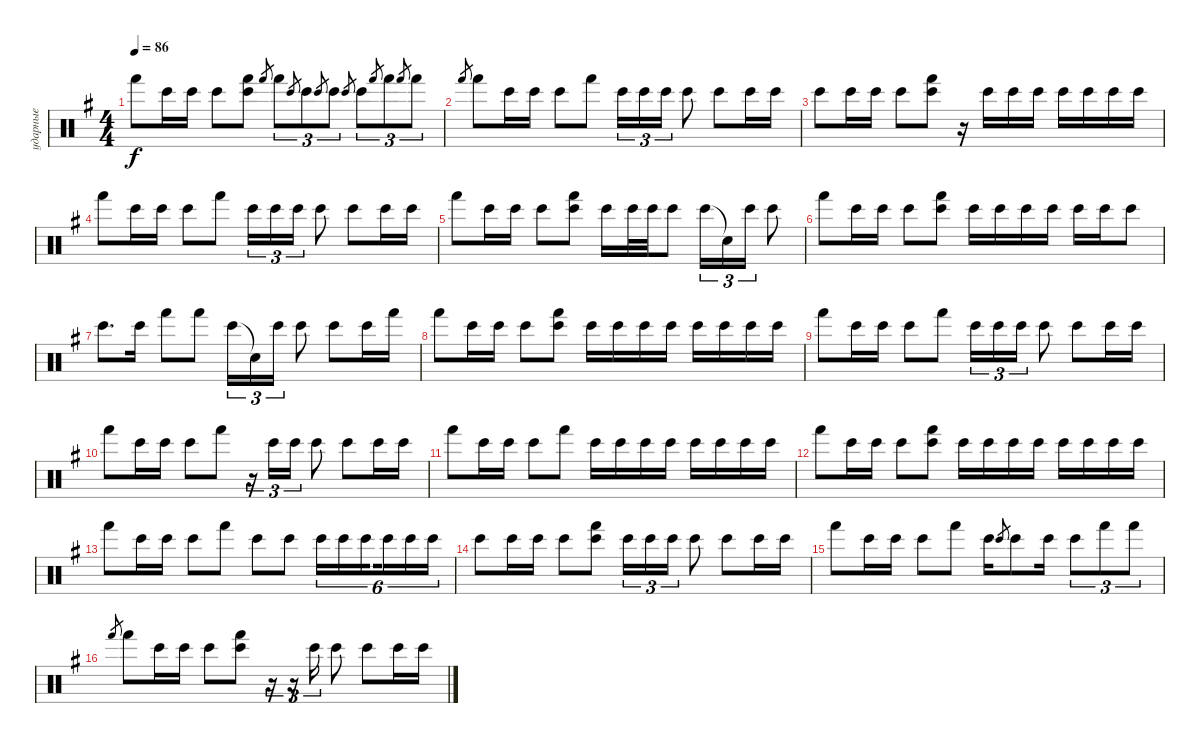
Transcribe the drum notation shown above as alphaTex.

\track ("ударные" "ударные") {instrument percussion}
\staff {score}
\articulation defaults
\ts (4 4)
\tempo 86
\clef neutral
\ks eminor "Hand (hit)".8{dy f} "Bongo High (hit)".16 "Bongo High (hit)".16 "Bongo High (hit)".8
("Bongo High (hit)" "Hand (hit)").8 "Hand (hit)".8{gr} "Hand (hit)".8{tu (3 2)} "Bongo High (hit)".8{gr} "Bongo High (hit)".8{tu (3 2)} "Bongo High (hit)".8{gr} "Bongo High (hit)".8{tu (3 2)} "Bongo High (hit)".8{gr} "Bongo High (hit)".8{tu (3 2)} "Hand (hit)".8{gr} "Hand (hit)".8{tu (3 2)} "Hand (hit)".8{gr} "Hand (hit)".8{tu (3 2)} |
"Hand (hit)".8{gr} "Hand (hit)".8 "Bongo High (hit)".16 "Bongo High (hit)".16 "Bongo High (hit)".8 "Hand (hit)".8 "Bongo High (hit)".16{tu (3 2)} "Bongo High (hit)".16{tu (3 2)} "Bongo High (hit)".16{tu (3 2)} "Bongo High (hit)".8 "Bongo High (hit)".8 "Bongo High (hit)".16 "Bongo High (hit)".16 |
"Bongo High (hit)".8 "Bongo High (hit)".16 "Bongo High (hit)".16 "Bongo High (hit)".8 ("Bongo High (hit)" "Hand (hit)").8 r.16 "Bongo High (hit)".16 "Bongo High (hit)".16 "Bongo High (hit)".16 "Bongo High (hit)".16 "Bongo High (hit)".16 "Bongo High (hit)".16 "Bongo High (hit)".16 |
"Hand (hit)".8 "Bongo High (hit)".16 "Bongo High (hit)".16 "Bongo High (hit)".8 "Hand (hit)".8 "Bongo High (hit)".16{tu (3 2)} "Bongo High (hit)".16{tu (3 2)} "Bongo High (hit)".16{tu (3 2)} "Bongo High (hit)".8 "Bongo High (hit)".8 "Bongo High (hit)".16 "Bongo High (hit)".16 |
"Hand (hit)".8 "Bongo High (hit)".16 "Bongo High (hit)".16 "Bongo High (hit)".8 ("Bongo High (hit)" "Hand (hit)").8 "Bongo High (hit)".16 "Bongo High (hit)".32 "Bongo High (hit)".32 "Bongo High (hit)".8 "Bongo High (hit)".16{tu (3 2)} "Snare (hit)"{t}.16{tu (3 2)} "Bongo High (hit)".16{tu (3 2)} "Bongo High (hit)".8 |
"Hand (hit)".8 "Bongo High (hit)".16 "Bongo High (hit)".16 "Bongo High (hit)".8 ("Bongo High (hit)" "Hand (hit)").8 "Bongo High (hit)".16 "Bongo High (hit)".16 "Bongo High (hit)".16 "Bongo High (hit)".16 "Bongo High (hit)".16 "Bongo High (hit)".16 "Bongo High (hit)".8 |
"Bongo High (hit)".8{d} "Bongo High (hit)".16 "Hand (hit)".8 "Hand (hit)".8 "Bongo High (hit)".16{tu (3 2)} "Snare (hit)"{t}.16{tu (3 2)} "Bongo High (hit)".16{tu (3 2)} "Bongo High (hit)".8 "Bongo High (hit)".8 "Bongo High (hit)".16 "Hand (hit)".16 |
"Hand (hit)".8 "Bongo High (hit)".16 "Bongo High (hit)".16 "Bongo High (hit)".8 ("Bongo High (hit)" "Hand (hit)").8 "Bongo High (hit)".16 "Bongo High (hit)".16 "Bongo High (hit)".16 "Bongo High (hit)".16 "Bongo High (hit)".16 "Bongo High (hit)".16 "Bongo High (hit)".16 "Bongo High (hit)".16 |
"Hand (hit)".8 "Bongo High (hit)".16 "Bongo High (hit)".16 "Bongo High (hit)".8 "Hand (hit)".8 "Bongo High (hit)".16{tu (3 2)} "Bongo High (hit)".16{tu (3 2)} "Bongo High (hit)".16{tu (3 2)} "Bongo High (hit)".8 "Bongo High (hit)".8 "Bongo High (hit)".16 "Bongo High (hit)".16 |
"Hand (hit)".8 "Bongo High (hit)".16 "Bongo High (hit)".16 "Bongo High (hit)".8 "Hand (hit)".8 r.16{tu (3 2)} "Bongo High (hit)".16{tu (3 2)} "Bongo High (hit)".16{tu (3 2)} "Bongo High (hit)".8 "Bongo High (hit)".8 "Bongo High (hit)".16 "Bongo High (hit)".16 |
"Hand (hit)".8 "Bongo High (hit)".16 "Bongo High (hit)".16 "Bongo High (hit)".8 "Hand (hit)".8 "Bongo High (hit)".16 "Bongo High (hit)".16 "Bongo High (hit)".16 "Bongo High (hit)".16 "Bongo High (hit)".16 "Bongo High (hit)".16 "Bongo High (hit)".16 "Bongo High (hit)".16 |
"Hand (hit)".8 "Bongo High (hit)".16 "Bongo High (hit)".16 "Bongo High (hit)".8 ("Bongo High (hit)" "Hand (hit)").8 "Bongo High (hit)".16 "Bongo High (hit)".16 "Bongo High (hit)".16 "Bongo High (hit)".16 "Bongo High (hit)".16 "Bongo High (hit)".16 "Bongo High (hit)".16 "Bongo High (hit)".16 |
"Hand (hit)".8 "Bongo High (hit)".16 "Bongo High (hit)".16 "Bongo High (hit)".8 "Hand (hit)".8 "Bongo High (hit)".8 "Bongo High (hit)".8 "Bongo High (hit)".16{tu (6 4)} "Bongo High (hit)".16{tu (6 4)} "Bongo High (hit)".16{tu (6 4) beam splitsecondary} "Bongo High (hit)".16{tu (6 4)} "Bongo High (hit)".16{tu (6 4)} "Bongo High (hit)".16{tu (6 4)} |
"Bongo High (hit)".8 "Bongo High (hit)".16 "Bongo High (hit)".16 "Bongo High (hit)".8 ("Bongo High (hit)" "Hand (hit)").8 "Bongo High (hit)".16{tu (3 2)} "Bongo High (hit)".16{tu (3 2)} "Bongo High (hit)".16{tu (3 2)} "Bongo High (hit)".8 "Bongo High (hit)".8 "Bongo High (hit)".16 "Bongo High (hit)".16 |
"Hand (hit)".8 "Bongo High (hit)".16 "Bongo High (hit)".16 "Bongo High (hit)".8 "Hand (hit)".8 "Bongo High (hit)".16 "Bongo High (hit)".8{gr} "Bongo High (hit)".8 "Bongo High (hit)".16 "Bongo High (hit)".8{tu (3 2)} "Hand (hit)".8{tu (3 2)} "Hand (hit)".8{tu (3 2)} |
"Hand (hit)".8{gr} "Hand (hit)".8 "Bongo High (hit)".16 "Bongo High (hit)".16 "Bongo High (hit)".8 ("Bongo High (hit)" "Hand (hit)").8 r.16{tu (3 2)} r.16{tu (3 2)} "Bongo High (hit)".16{tu (3 2)} "Bongo High (hit)".8 "Bongo High (hit)".8 "Bongo High (hit)".16 "Bongo High (hit)".16
